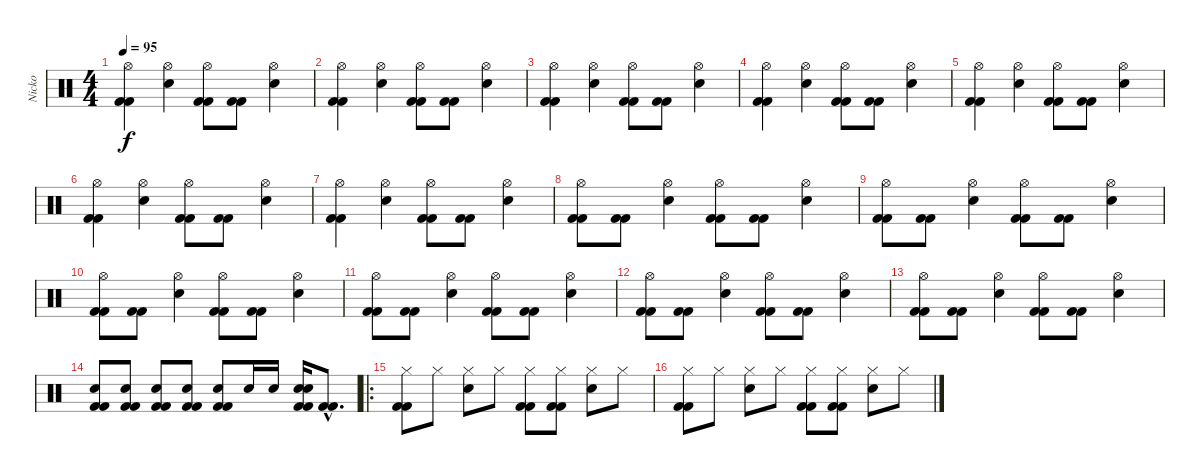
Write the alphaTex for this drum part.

\track ("Nicko " "Nicko ") {instrument percussion}
\staff {score}
\articulation defaults
\ts (4 4)
\tempo 95
\clef neutral
\ks c
("Hi-Hat (open)" "Kick (hit) 2" "Kick (hit) 2").4{dy f} ("Hi-Hat (open)" "Snare (hit) 2").4 ("Hi-Hat (open)" "Kick (hit) 2" "Kick (hit) 2").8 ("Kick (hit) 2" "Kick (hit) 2").8 ("Hi-Hat (open)" "Snare (hit) 2").4 |
("Hi-Hat (open)" "Kick (hit) 2" "Kick (hit) 2").4 ("Hi-Hat (open)" "Snare (hit) 2").4 ("Hi-Hat (open)" "Kick (hit) 2" "Kick (hit) 2").8 ("Kick (hit) 2" "Kick (hit) 2").8 ("Hi-Hat (open)" "Snare (hit) 2").4 |
("Hi-Hat (open)" "Kick (hit) 2" "Kick (hit) 2").4 ("Hi-Hat (open)" "Snare (hit) 2").4 ("Hi-Hat (open)" "Kick (hit) 2" "Kick (hit) 2").8 ("Kick (hit) 2" "Kick (hit) 2").8 ("Hi-Hat (open)" "Snare (hit) 2").4 |
("Hi-Hat (open)" "Kick (hit) 2" "Kick (hit) 2").4 ("Hi-Hat (open)" "Snare (hit) 2").4 ("Hi-Hat (open)" "Kick (hit) 2" "Kick (hit) 2").8 ("Kick (hit) 2" "Kick (hit) 2").8 ("Hi-Hat (open)" "Snare (hit) 2").4 |
("Hi-Hat (open)" "Kick (hit) 2" "Kick (hit) 2").4 ("Hi-Hat (open)" "Snare (hit) 2").4 ("Hi-Hat (open)" "Kick (hit) 2" "Kick (hit) 2").8 ("Kick (hit) 2" "Kick (hit) 2").8 ("Hi-Hat (open)" "Snare (hit) 2").4 |
("Hi-Hat (open)" "Kick (hit) 2" "Kick (hit) 2").4 ("Hi-Hat (open)" "Snare (hit) 2").4 ("Hi-Hat (open)" "Kick (hit) 2" "Kick (hit) 2").8 ("Kick (hit) 2" "Kick (hit) 2").8 ("Hi-Hat (open)" "Snare (hit) 2").4 |
("Hi-Hat (open)" "Kick (hit) 2" "Kick (hit) 2").4 ("Hi-Hat (open)" "Snare (hit) 2").4 ("Hi-Hat (open)" "Kick (hit) 2" "Kick (hit) 2").8 ("Kick (hit) 2" "Kick (hit) 2").8 ("Hi-Hat (open)" "Snare (hit) 2").4 |
("Hi-Hat (open)" "Kick (hit) 2" "Kick (hit) 2").8 ("Kick (hit) 2" "Kick (hit) 2").8 ("Hi-Hat (open)" "Snare (hit) 2").4 ("Hi-Hat (open)" "Kick (hit) 2" "Kick (hit) 2").8 ("Kick (hit) 2" "Kick (hit) 2").8 ("Hi-Hat (open)" "Snare (hit) 2").4 |
("Hi-Hat (open)" "Kick (hit) 2" "Kick (hit) 2").8 ("Kick (hit) 2" "Kick (hit) 2").8 ("Hi-Hat (open)" "Snare (hit) 2").4 ("Hi-Hat (open)" "Kick (hit) 2" "Kick (hit) 2").8 ("Kick (hit) 2" "Kick (hit) 2").8 ("Hi-Hat (open)" "Snare (hit) 2").4 |
("Hi-Hat (open)" "Kick (hit) 2" "Kick (hit) 2").8 ("Kick (hit) 2" "Kick (hit) 2").8 ("Hi-Hat (open)" "Snare (hit) 2").4 ("Hi-Hat (open)" "Kick (hit) 2" "Kick (hit) 2").8 ("Kick (hit) 2" "Kick (hit) 2").8 ("Hi-Hat (open)" "Snare (hit) 2").4 |
("Hi-Hat (open)" "Kick (hit) 2" "Kick (hit) 2").8 ("Kick (hit) 2" "Kick (hit) 2").8 ("Hi-Hat (open)" "Snare (hit) 2").4 ("Hi-Hat (open)" "Kick (hit) 2" "Kick (hit) 2").8 ("Kick (hit) 2" "Kick (hit) 2").8 ("Hi-Hat (open)" "Snare (hit) 2").4 |
("Hi-Hat (open)" "Kick (hit) 2" "Kick (hit) 2").8 ("Kick (hit) 2" "Kick (hit) 2").8 ("Hi-Hat (open)" "Snare (hit) 2").4 ("Hi-Hat (open)" "Kick (hit) 2" "Kick (hit) 2").8 ("Kick (hit) 2" "Kick (hit) 2").8 ("Hi-Hat (open)" "Snare (hit) 2").4 |
("Hi-Hat (open)" "Kick (hit) 2" "Kick (hit) 2").8 ("Kick (hit) 2" "Kick (hit) 2").8 ("Hi-Hat (open)" "Snare (hit) 2").4 ("Hi-Hat (open)" "Kick (hit) 2" "Kick (hit) 2").8 ("Kick (hit) 2" "Kick (hit) 2").8 ("Hi-Hat (open)" "Snare (hit) 2").4 |
("Snare (hit) 2" "Kick (hit) 2" "Kick (hit) 2").8 ("Snare (hit) 2" "Kick (hit) 2" "Kick (hit) 2").8 ("Snare (hit) 2" "Kick (hit) 2" "Kick (hit) 2").8 ("Snare (hit) 2" "Kick (hit) 2" "Kick (hit) 2").8 ("Snare (hit) 2" "Kick (hit) 2" "Kick (hit) 2").8 "Snare (hit) 2".16 "Snare (hit) 2".16 ("Snare (hit) 2" "Snare (hit) 2" "Kick (hit) 2" "Kick (hit) 2").16 ("Kick (hit) 2"{hac} "Kick (hit) 2"{hac}).8{d} |
\ro
("Hi-Hat (closed)" "Kick (hit) 2" "Kick (hit) 2").8 "Hi-Hat (closed)".8 ("Hi-Hat (closed)" "Snare (hit) 2").8 "Hi-Hat (closed)".8 ("Hi-Hat (closed)" "Kick (hit) 2" "Kick (hit) 2").8 ("Hi-Hat (closed)" "Kick (hit) 2" "Kick (hit) 2").8 ("Hi-Hat (closed)" "Snare (hit) 2").8 "Hi-Hat (closed)".8 |
("Hi-Hat (closed)" "Kick (hit) 2" "Kick (hit) 2").8 "Hi-Hat (closed)".8 ("Hi-Hat (closed)" "Snare (hit) 2").8 "Hi-Hat (closed)".8 ("Hi-Hat (closed)" "Kick (hit) 2" "Kick (hit) 2").8 ("Hi-Hat (closed)" "Kick (hit) 2" "Kick (hit) 2").8 ("Hi-Hat (closed)" "Snare (hit) 2").8 "Hi-Hat (closed)".8
